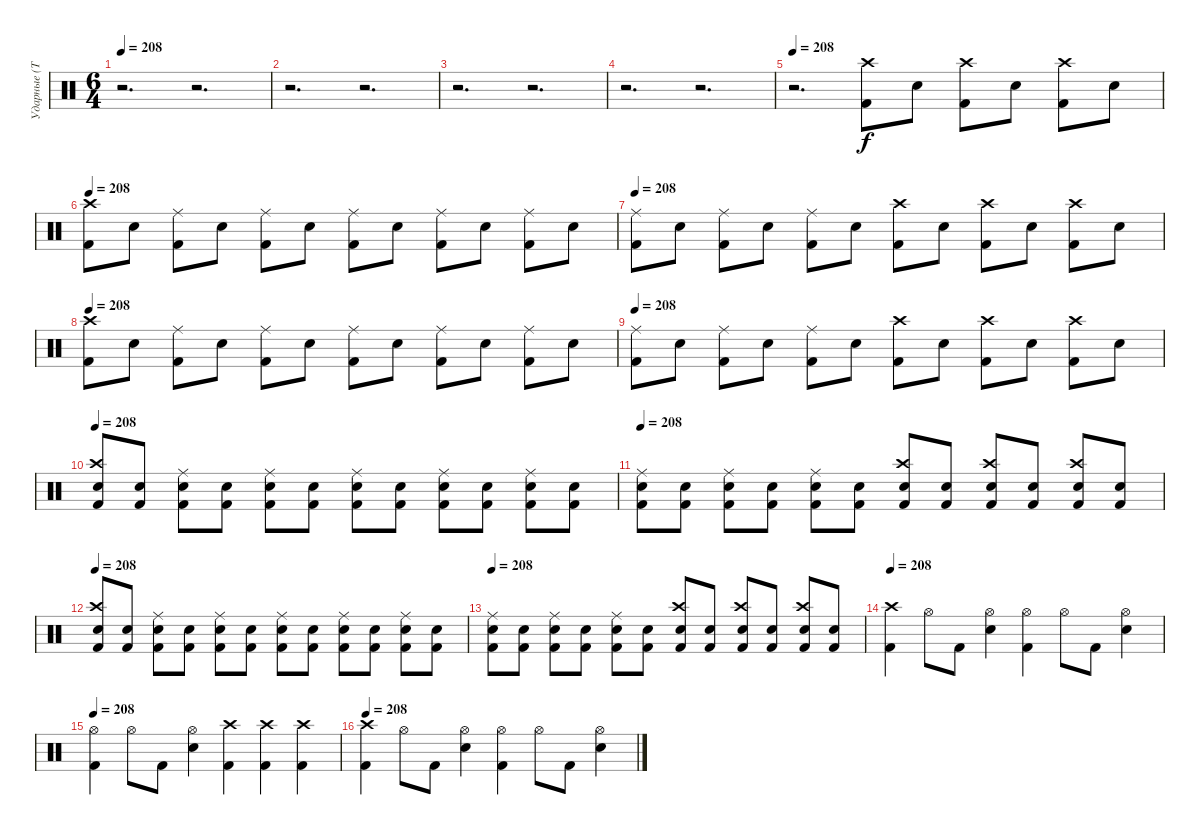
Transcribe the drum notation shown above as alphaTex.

\track ("Ударные (Тьодальв)" "Ударные (Т") {instrument percussion}
\staff {score}
\articulation defaults
\ts (6 4)
\tempo 208
\clef neutral
\ks c
r.2{d dy f} r.2{d} |
r.2{d} r.2{d} |
r.2{d} r.2{d} |
r.2{d} r.2{d} |
\tempo 208
r.2{d} ("Kick (hit) 2" "Crash high (hit)").8 "Snare (hit) 2".8 ("Kick (hit) 2" "Crash high (hit)").8 "Snare (hit) 2".8 ("Kick (hit) 2" "Crash high (hit)").8 "Snare (hit) 2".8 |
\tempo 208
("Kick (hit) 2" "Crash high (hit)").8 "Snare (hit) 2".8 ("Kick (hit) 2" "Ride (middle)").8 "Snare (hit) 2".8 ("Kick (hit) 2" "Ride (middle)").8 "Snare (hit) 2".8 ("Kick (hit) 2" "Ride (middle)").8 "Snare (hit) 2".8 ("Kick (hit) 2" "Ride (middle)").8 "Snare (hit) 2".8 ("Kick (hit) 2" "Ride (middle)").8 "Snare (hit) 2".8 |
\tempo 208
("Kick (hit) 2" "Ride (middle)").8 "Snare (hit) 2".8 ("Kick (hit) 2" "Ride (middle)").8 "Snare (hit) 2".8 ("Kick (hit) 2" "Ride (middle)").8 "Snare (hit) 2".8 ("Kick (hit) 2" "Crash high (hit)").8 "Snare (hit) 2".8 ("Kick (hit) 2" "Crash high (hit)").8 "Snare (hit) 2".8 ("Kick (hit) 2" "Crash high (hit)").8 "Snare (hit) 2".8 |
\tempo 208
("Kick (hit) 2" "Crash high (hit)").8 "Snare (hit) 2".8 ("Kick (hit) 2" "Ride (middle)").8 "Snare (hit) 2".8 ("Kick (hit) 2" "Ride (middle)").8 "Snare (hit) 2".8 ("Kick (hit) 2" "Ride (middle)").8 "Snare (hit) 2".8 ("Kick (hit) 2" "Ride (middle)").8 "Snare (hit) 2".8 ("Kick (hit) 2" "Ride (middle)").8 "Snare (hit) 2".8 |
\tempo 208
("Kick (hit) 2" "Ride (middle)").8 "Snare (hit) 2".8 ("Kick (hit) 2" "Ride (middle)").8 "Snare (hit) 2".8 ("Kick (hit) 2" "Ride (middle)").8 "Snare (hit) 2".8 ("Kick (hit) 2" "Crash high (hit)").8 "Snare (hit) 2".8 ("Kick (hit) 2" "Crash high (hit)").8 "Snare (hit) 2".8 ("Kick (hit) 2" "Crash high (hit)").8 "Snare (hit) 2".8 |
\tempo 208
("Kick (hit) 2" "Snare (hit) 2" "Crash high (hit)").8 ("Kick (hit) 2" "Snare (hit) 2").8 ("Kick (hit) 2" "Snare (hit) 2" "Ride (middle)").8 ("Kick (hit) 2" "Snare (hit) 2").8 ("Kick (hit) 2" "Snare (hit) 2" "Ride (middle)").8 ("Kick (hit) 2" "Snare (hit) 2").8 ("Kick (hit) 2" "Snare (hit) 2" "Ride (middle)").8 ("Kick (hit) 2" "Snare (hit) 2").8 ("Kick (hit) 2" "Snare (hit) 2" "Ride (middle)").8 ("Kick (hit) 2" "Snare (hit) 2").8 ("Kick (hit) 2" "Snare (hit) 2" "Ride (middle)").8 ("Kick (hit) 2" "Snare (hit) 2").8 |
\tempo 208
("Kick (hit) 2" "Snare (hit) 2" "Ride (middle)").8 ("Kick (hit) 2" "Snare (hit) 2").8 ("Kick (hit) 2" "Snare (hit) 2" "Ride (middle)").8 ("Kick (hit) 2" "Snare (hit) 2").8 ("Kick (hit) 2" "Snare (hit) 2" "Ride (middle)").8 ("Kick (hit) 2" "Snare (hit) 2").8 ("Kick (hit) 2" "Snare (hit) 2" "Crash high (hit)").8 ("Kick (hit) 2" "Snare (hit) 2").8 ("Kick (hit) 2" "Snare (hit) 2" "Crash high (hit)").8 ("Kick (hit) 2" "Snare (hit) 2").8 ("Kick (hit) 2" "Snare (hit) 2" "Crash high (hit)").8 ("Kick (hit) 2" "Snare (hit) 2").8 |
\tempo 208
("Kick (hit) 2" "Snare (hit) 2" "Crash high (hit)").8 ("Kick (hit) 2" "Snare (hit) 2").8 ("Kick (hit) 2" "Snare (hit) 2" "Ride (middle)").8 ("Kick (hit) 2" "Snare (hit) 2").8 ("Kick (hit) 2" "Snare (hit) 2" "Ride (middle)").8 ("Kick (hit) 2" "Snare (hit) 2").8 ("Kick (hit) 2" "Snare (hit) 2" "Ride (middle)").8 ("Kick (hit) 2" "Snare (hit) 2").8 ("Kick (hit) 2" "Snare (hit) 2" "Ride (middle)").8 ("Kick (hit) 2" "Snare (hit) 2").8 ("Kick (hit) 2" "Snare (hit) 2" "Ride (middle)").8 ("Kick (hit) 2" "Snare (hit) 2").8 |
\tempo 208
("Kick (hit) 2" "Snare (hit) 2" "Ride (middle)").8 ("Kick (hit) 2" "Snare (hit) 2").8 ("Kick (hit) 2" "Snare (hit) 2" "Ride (middle)").8 ("Kick (hit) 2" "Snare (hit) 2").8 ("Kick (hit) 2" "Snare (hit) 2" "Ride (middle)").8 ("Kick (hit) 2" "Snare (hit) 2").8 ("Kick (hit) 2" "Snare (hit) 2" "Crash high (hit)").8 ("Kick (hit) 2" "Snare (hit) 2").8 ("Kick (hit) 2" "Snare (hit) 2" "Crash high (hit)").8 ("Kick (hit) 2" "Snare (hit) 2").8 ("Kick (hit) 2" "Snare (hit) 2" "Crash high (hit)").8 ("Kick (hit) 2" "Snare (hit) 2").8 |
\tempo 208
("Kick (hit) 2" "Crash high (hit)").4 "Hi-Hat (open)".8 "Kick (hit) 2".8 ("Snare (hit) 2" "Hi-Hat (open)").4 ("Kick (hit) 2" "Hi-Hat (open)").4 "Hi-Hat (open)".8 "Kick (hit) 2".8 ("Snare (hit) 2" "Hi-Hat (open)").4 |
\tempo 208
("Kick (hit) 2" "Hi-Hat (open)").4 "Hi-Hat (open)".8 "Kick (hit) 2".8 ("Snare (hit) 2" "Hi-Hat (open)").4 ("Kick (hit) 2" "Crash high (hit)").4 ("Kick (hit) 2" "Crash high (hit)").4 ("Kick (hit) 2" "Crash high (hit)").4 |
\tempo 208
("Kick (hit) 2" "Crash high (hit)").4 "Hi-Hat (open)".8 "Kick (hit) 2".8 ("Snare (hit) 2" "Hi-Hat (open)").4 ("Kick (hit) 2" "Hi-Hat (open)").4 "Hi-Hat (open)".8 "Kick (hit) 2".8 ("Snare (hit) 2" "Hi-Hat (open)").4
